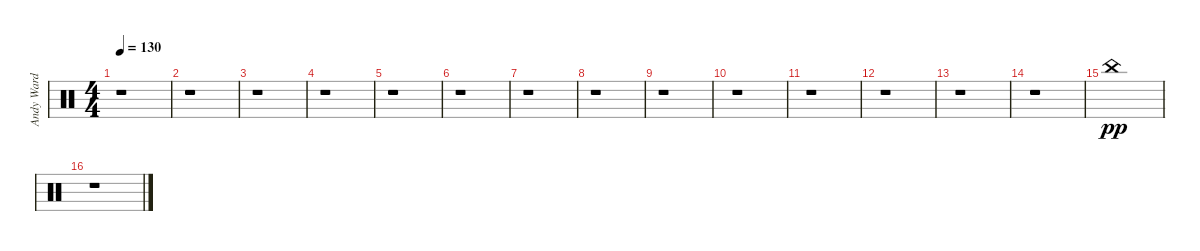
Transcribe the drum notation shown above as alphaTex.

\track ("Andy Ward" "Andy Ward") {instrument percussion}
\staff {score}
\articulation defaults
\ts (4 4)
\tempo 130
\clef neutral
\ks c
r.1{dy f} |
r.1 |
r.1 |
r.1 |
r.1 |
r.1 |
r.1 |
r.1 |
r.1 |
r.1 |
r.1 |
r.1 |
r.1 |
r.1 |
"China (hit)".1{dy pp} |
r.1
